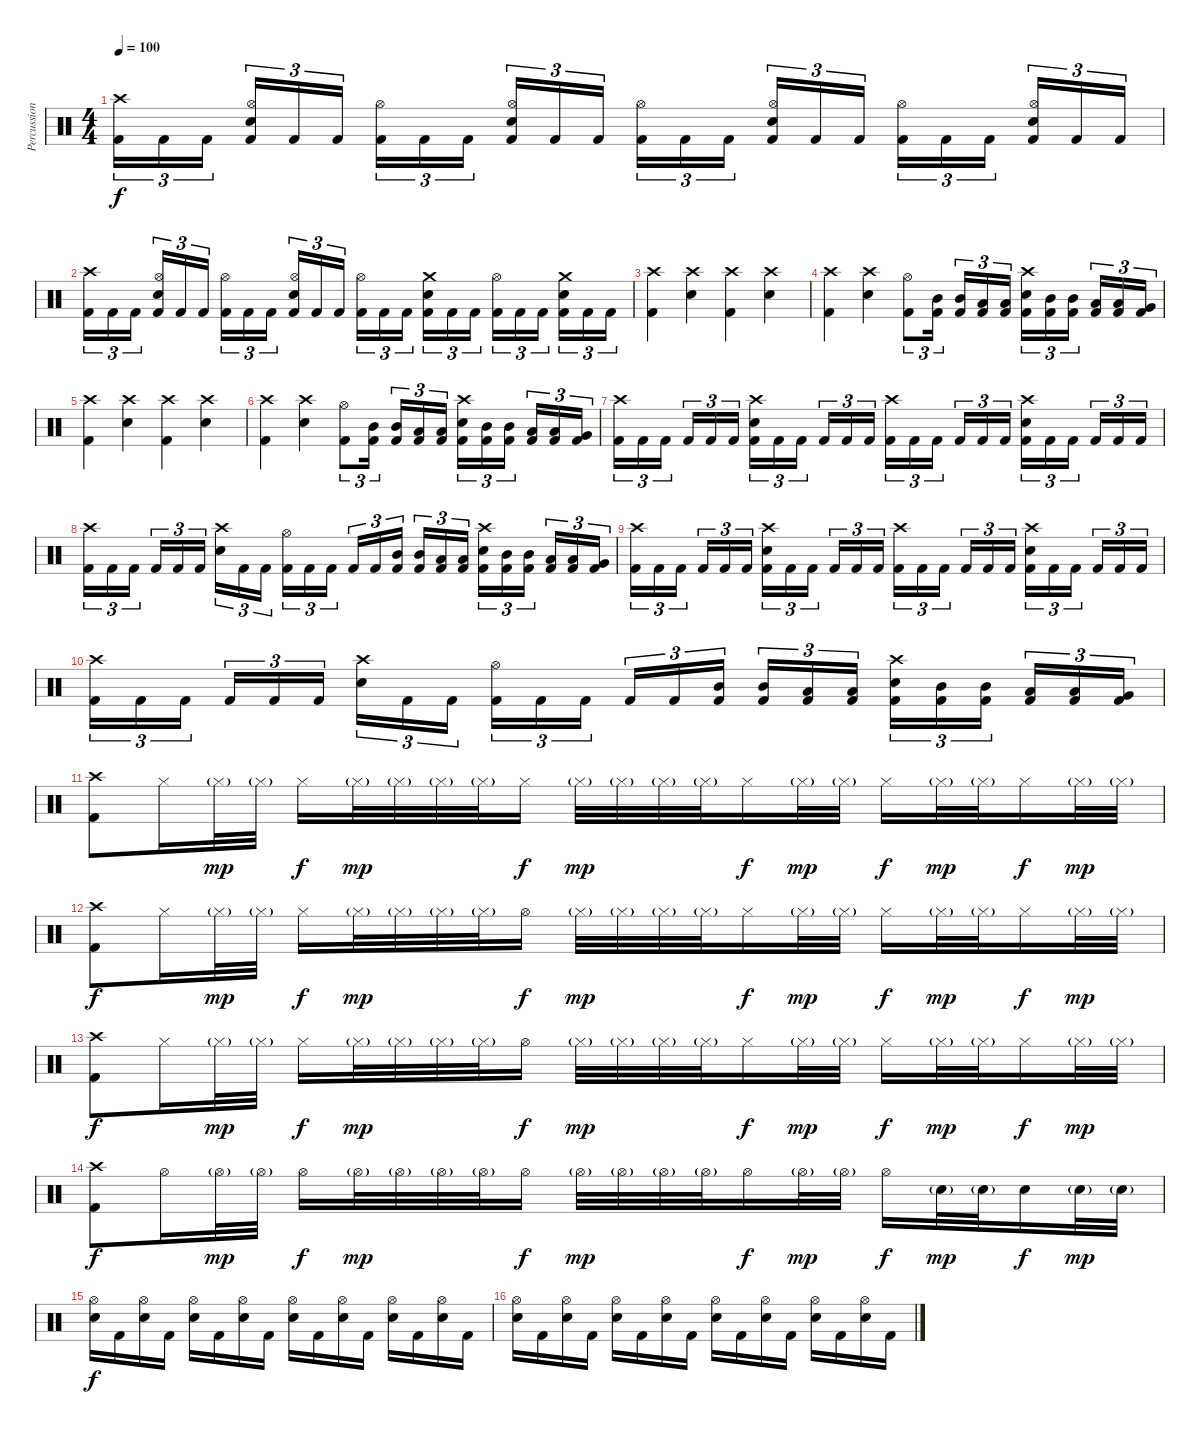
\track ("Percussion" "Percussion") {instrument percussion}
\staff {score}
\articulation defaults
\ts (4 4)
\tempo 100
\clef neutral
\ks c
("Crash high (hit)" "Kick (hit) 2").16{tu (3 2) dy f} "Kick (hit) 2".16{tu (3 2)} "Kick (hit) 2".16{tu (3 2)} ("Hi-Hat (open)" "Electric Snare (hit)" "Kick (hit) 2").16{tu (3 2)} "Kick (hit) 2".16{tu (3 2)} "Kick (hit) 2".16{tu (3 2)} ("Hi-Hat (open)" "Kick (hit) 2").16{tu (3 2)} "Kick (hit) 2".16{tu (3 2)} "Kick (hit) 2".16{tu (3 2)} ("Hi-Hat (open)" "Electric Snare (hit)" "Kick (hit) 2").16{tu (3 2)} "Kick (hit) 2".16{tu (3 2)} "Kick (hit) 2".16{tu (3 2)} ("Hi-Hat (open)" "Kick (hit) 2").16{tu (3 2)} "Kick (hit) 2".16{tu (3 2)} "Kick (hit) 2".16{tu (3 2)} ("Hi-Hat (open)" "Electric Snare (hit)" "Kick (hit) 2").16{tu (3 2)} "Kick (hit) 2".16{tu (3 2)} "Kick (hit) 2".16{tu (3 2)} ("Hi-Hat (open)" "Kick (hit) 2").16{tu (3 2)} "Kick (hit) 2".16{tu (3 2)} "Kick (hit) 2".16{tu (3 2)} ("Hi-Hat (open)" "Electric Snare (hit)" "Kick (hit) 2").16{tu (3 2)} "Kick (hit) 2".16{tu (3 2)} "Kick (hit) 2".16{tu (3 2)} |
("Crash high (hit)" "Kick (hit) 2").16{tu (3 2)} "Kick (hit) 2".16{tu (3 2)} "Kick (hit) 2".16{tu (3 2)} ("Hi-Hat (open)" "Electric Snare (hit)" "Kick (hit) 2").16{tu (3 2)} "Kick (hit) 2".16{tu (3 2)} "Kick (hit) 2".16{tu (3 2)} ("Hi-Hat (open)" "Kick (hit) 2").16{tu (3 2)} "Kick (hit) 2".16{tu (3 2)} "Kick (hit) 2".16{tu (3 2)} ("Hi-Hat (open)" "Electric Snare (hit)" "Kick (hit) 2").16{tu (3 2)} "Kick (hit) 2".16{tu (3 2)} "Kick (hit) 2".16{tu (3 2)} ("Hi-Hat (open)" "Kick (hit) 2").16{tu (3 2)} "Kick (hit) 2".16{tu (3 2)} "Kick (hit) 2".16{tu (3 2)} ("Crash medium (hit)" "Electric Snare (hit)" "Kick (hit) 2").16{tu (3 2)} "Kick (hit) 2".16{tu (3 2)} "Kick (hit) 2".16{tu (3 2)} ("Hi-Hat (open)" "Kick (hit) 2").16{tu (3 2)} "Kick (hit) 2".16{tu (3 2)} "Kick (hit) 2".16{tu (3 2)} ("Crash medium (hit)" "Electric Snare (hit)" "Kick (hit) 2").16{tu (3 2)} "Kick (hit) 2".16{tu (3 2)} "Kick (hit) 2".16{tu (3 2)} |
("Crash high (hit)" "Kick (hit) 2").4 ("Crash high (hit)" "Electric Snare (hit)").4 ("Crash high (hit)" "Kick (hit) 2").4 ("Crash high (hit)" "Electric Snare (hit)").4 |
("Crash high (hit)" "Kick (hit) 2").4 ("Crash high (hit)" "Electric Snare (hit)").4 ("Hi-Hat (open)" "Kick (hit) 2").8{tu (3 2)} ("Mid Tom (hit)" "Kick (hit) 2").16{tu (3 2)} ("Mid Tom (hit)" "Kick (hit) 2").16{tu (3 2)} ("Low Tom (hit)" "Kick (hit) 2").16{tu (3 2)} ("Low Tom (hit)" "Kick (hit) 2").16{tu (3 2)} ("Crash high (hit)" "Electric Snare (hit)" "Kick (hit) 2").16{tu (3 2)} ("Mid Tom (hit)" "Kick (hit) 2").16{tu (3 2)} ("Mid Tom (hit)" "Kick (hit) 2").16{tu (3 2)} ("Low Tom (hit)" "Kick (hit) 2").16{tu (3 2)} ("Low Tom (hit)" "Kick (hit) 2").16{tu (3 2)} ("Very Low Tom (hit)" "Kick (hit) 2").16{tu (3 2)} |
("Crash high (hit)" "Kick (hit) 2").4 ("Crash high (hit)" "Electric Snare (hit)").4 ("Crash high (hit)" "Kick (hit) 2").4 ("Crash high (hit)" "Electric Snare (hit)").4 |
("Crash high (hit)" "Kick (hit) 2").4 ("Crash high (hit)" "Electric Snare (hit)").4 ("Hi-Hat (open)" "Kick (hit) 2").8{tu (3 2)} ("Mid Tom (hit)" "Kick (hit) 2").16{tu (3 2)} ("Mid Tom (hit)" "Kick (hit) 2").16{tu (3 2)} ("Low Tom (hit)" "Kick (hit) 2").16{tu (3 2)} ("Low Tom (hit)" "Kick (hit) 2").16{tu (3 2)} ("Crash high (hit)" "Electric Snare (hit)" "Kick (hit) 2").16{tu (3 2)} ("Mid Tom (hit)" "Kick (hit) 2").16{tu (3 2)} ("Mid Tom (hit)" "Kick (hit) 2").16{tu (3 2)} ("Low Tom (hit)" "Kick (hit) 2").16{tu (3 2)} ("Low Tom (hit)" "Kick (hit) 2").16{tu (3 2)} ("Very Low Tom (hit)" "Kick (hit) 2").16{tu (3 2)} |
("Crash high (hit)" "Kick (hit) 2").16{tu (3 2)} "Kick (hit) 2".16{tu (3 2)} "Kick (hit) 2".16{tu (3 2)} "Kick (hit) 2".16{tu (3 2)} "Kick (hit) 2".16{tu (3 2)} "Kick (hit) 2".16{tu (3 2)} ("Crash high (hit)" "Electric Snare (hit)" "Kick (hit) 2").16{tu (3 2)} "Kick (hit) 2".16{tu (3 2)} "Kick (hit) 2".16{tu (3 2)} "Kick (hit) 2".16{tu (3 2)} "Kick (hit) 2".16{tu (3 2)} "Kick (hit) 2".16{tu (3 2)} ("Crash high (hit)" "Kick (hit) 2").16{tu (3 2)} "Kick (hit) 2".16{tu (3 2)} "Kick (hit) 2".16{tu (3 2)} "Kick (hit) 2".16{tu (3 2)} "Kick (hit) 2".16{tu (3 2)} "Kick (hit) 2".16{tu (3 2)} ("Crash high (hit)" "Electric Snare (hit)" "Kick (hit) 2").16{tu (3 2)} "Kick (hit) 2".16{tu (3 2)} "Kick (hit) 2".16{tu (3 2)} "Kick (hit) 2".16{tu (3 2)} "Kick (hit) 2".16{tu (3 2)} "Kick (hit) 2".16{tu (3 2)} |
("Crash high (hit)" "Kick (hit) 2").16{tu (3 2)} "Kick (hit) 2".16{tu (3 2)} "Kick (hit) 2".16{tu (3 2)} "Kick (hit) 2".16{tu (3 2)} "Kick (hit) 2".16{tu (3 2)} "Kick (hit) 2".16{tu (3 2)} ("Crash high (hit)" "Electric Snare (hit)").16{tu (3 2)} "Kick (hit) 2".16{tu (3 2)} "Kick (hit) 2".16{tu (3 2)} ("Hi-Hat (open)" "Kick (hit) 2").16{tu (3 2)} "Kick (hit) 2".16{tu (3 2)} "Kick (hit) 2".16{tu (3 2)} "Kick (hit) 2".16{tu (3 2)} "Kick (hit) 2".16{tu (3 2)} ("Mid Tom (hit)" "Kick (hit) 2").16{tu (3 2)} ("Mid Tom (hit)" "Kick (hit) 2").16{tu (3 2)} ("Low Tom (hit)" "Kick (hit) 2").16{tu (3 2)} ("Low Tom (hit)" "Kick (hit) 2").16{tu (3 2)} ("Crash high (hit)" "Electric Snare (hit)" "Kick (hit) 2").16{tu (3 2)} ("Mid Tom (hit)" "Kick (hit) 2").16{tu (3 2)} ("Mid Tom (hit)" "Kick (hit) 2").16{tu (3 2)} ("Low Tom (hit)" "Kick (hit) 2").16{tu (3 2)} ("Low Tom (hit)" "Kick (hit) 2").16{tu (3 2)} ("Very Low Tom (hit)" "Kick (hit) 2").16{tu (3 2)} |
("Crash high (hit)" "Kick (hit) 2").16{tu (3 2)} "Kick (hit) 2".16{tu (3 2)} "Kick (hit) 2".16{tu (3 2)} "Kick (hit) 2".16{tu (3 2)} "Kick (hit) 2".16{tu (3 2)} "Kick (hit) 2".16{tu (3 2)} ("Crash high (hit)" "Electric Snare (hit)" "Kick (hit) 2").16{tu (3 2)} "Kick (hit) 2".16{tu (3 2)} "Kick (hit) 2".16{tu (3 2)} "Kick (hit) 2".16{tu (3 2)} "Kick (hit) 2".16{tu (3 2)} "Kick (hit) 2".16{tu (3 2)} ("Crash high (hit)" "Kick (hit) 2").16{tu (3 2)} "Kick (hit) 2".16{tu (3 2)} "Kick (hit) 2".16{tu (3 2)} "Kick (hit) 2".16{tu (3 2)} "Kick (hit) 2".16{tu (3 2)} "Kick (hit) 2".16{tu (3 2)} ("Crash high (hit)" "Electric Snare (hit)" "Kick (hit) 2").16{tu (3 2)} "Kick (hit) 2".16{tu (3 2)} "Kick (hit) 2".16{tu (3 2)} "Kick (hit) 2".16{tu (3 2)} "Kick (hit) 2".16{tu (3 2)} "Kick (hit) 2".16{tu (3 2)} |
("Crash high (hit)" "Kick (hit) 2").16{tu (3 2)} "Kick (hit) 2".16{tu (3 2)} "Kick (hit) 2".16{tu (3 2)} "Kick (hit) 2".16{tu (3 2)} "Kick (hit) 2".16{tu (3 2)} "Kick (hit) 2".16{tu (3 2)} ("Crash high (hit)" "Electric Snare (hit)").16{tu (3 2)} "Kick (hit) 2".16{tu (3 2)} "Kick (hit) 2".16{tu (3 2)} ("Hi-Hat (open)" "Kick (hit) 2").16{tu (3 2)} "Kick (hit) 2".16{tu (3 2)} "Kick (hit) 2".16{tu (3 2)} "Kick (hit) 2".16{tu (3 2)} "Kick (hit) 2".16{tu (3 2)} ("Mid Tom (hit)" "Kick (hit) 2").16{tu (3 2)} ("Mid Tom (hit)" "Kick (hit) 2").16{tu (3 2)} ("Low Tom (hit)" "Kick (hit) 2").16{tu (3 2)} ("Low Tom (hit)" "Kick (hit) 2").16{tu (3 2)} ("Crash high (hit)" "Electric Snare (hit)" "Kick (hit) 2").16{tu (3 2)} ("Mid Tom (hit)" "Kick (hit) 2").16{tu (3 2)} ("Mid Tom (hit)" "Kick (hit) 2").16{tu (3 2)} ("Low Tom (hit)" "Kick (hit) 2").16{tu (3 2)} ("Low Tom (hit)" "Kick (hit) 2").16{tu (3 2)} ("Very Low Tom (hit)" "Kick (hit) 2").16{tu (3 2)} |
("Crash high (hit)" "Kick (hit) 2").8 "Hi-Hat (closed)".16 "Hi-Hat (closed)"{g}.32{dy mp} "Hi-Hat (closed)"{g}.32 "Hi-Hat (closed)".16{dy f} "Hi-Hat (closed)"{g}.32{dy mp} "Hi-Hat (closed)"{g}.32 "Hi-Hat (closed)"{g}.32 "Hi-Hat (closed)"{g}.32 "Hi-Hat (closed)".16{dy f} "Hi-Hat (closed)"{g}.32{dy mp} "Hi-Hat (closed)"{g}.32 "Hi-Hat (closed)"{g}.32 "Hi-Hat (closed)"{g}.32 "Hi-Hat (closed)".16{dy f} "Hi-Hat (closed)"{g}.32{dy mp} "Hi-Hat (closed)"{g}.32 "Hi-Hat (closed)".16{dy f} "Hi-Hat (closed)"{g}.32{dy mp} "Hi-Hat (closed)"{g}.32 "Hi-Hat (closed)".16{dy f} "Hi-Hat (closed)"{g}.32{dy mp} "Hi-Hat (closed)"{g}.32 |
("Crash high (hit)" "Kick (hit) 2").8{dy f} "Hi-Hat (closed)".16 "Hi-Hat (closed)"{g}.32{dy mp} "Hi-Hat (closed)"{g}.32 "Hi-Hat (closed)".16{dy f} "Hi-Hat (closed)"{g}.32{dy mp} "Hi-Hat (closed)"{g}.32 "Hi-Hat (closed)"{g}.32 "Hi-Hat (closed)"{g}.32 "Hi-Hat (open)".16{dy f} "Hi-Hat (closed)"{g}.32{dy mp} "Hi-Hat (closed)"{g}.32 "Hi-Hat (closed)"{g}.32 "Hi-Hat (closed)"{g}.32 "Hi-Hat (closed)".16{dy f} "Hi-Hat (closed)"{g}.32{dy mp} "Hi-Hat (closed)"{g}.32 "Hi-Hat (closed)".16{dy f} "Hi-Hat (closed)"{g}.32{dy mp} "Hi-Hat (closed)"{g}.32 "Hi-Hat (closed)".16{dy f} "Hi-Hat (closed)"{g}.32{dy mp} "Hi-Hat (closed)"{g}.32 |
("Crash high (hit)" "Kick (hit) 2").8{dy f} "Hi-Hat (closed)".16 "Hi-Hat (closed)"{g}.32{dy mp} "Hi-Hat (closed)"{g}.32 "Hi-Hat (closed)".16{dy f} "Hi-Hat (closed)"{g}.32{dy mp} "Hi-Hat (closed)"{g}.32 "Hi-Hat (closed)"{g}.32 "Hi-Hat (closed)"{g}.32 "Hi-Hat (open)".16{dy f} "Hi-Hat (closed)"{g}.32{dy mp} "Hi-Hat (closed)"{g}.32 "Hi-Hat (closed)"{g}.32 "Hi-Hat (closed)"{g}.32 "Hi-Hat (closed)".16{dy f} "Hi-Hat (closed)"{g}.32{dy mp} "Hi-Hat (closed)"{g}.32 "Hi-Hat (closed)".16{dy f} "Hi-Hat (closed)"{g}.32{dy mp} "Hi-Hat (closed)"{g}.32 "Hi-Hat (closed)".16{dy f} "Hi-Hat (closed)"{g}.32{dy mp} "Hi-Hat (closed)"{g}.32 |
("Crash high (hit)" "Kick (hit) 2").8{dy f} "Hi-Hat (open)".16 "Hi-Hat (open)"{g}.32{dy mp} "Hi-Hat (open)"{g}.32 "Hi-Hat (open)".16{dy f} "Hi-Hat (open)"{g}.32{dy mp} "Hi-Hat (open)"{g}.32 "Hi-Hat (open)"{g}.32 "Hi-Hat (open)"{g}.32 "Hi-Hat (open)".16{dy f} "Hi-Hat (open)"{g}.32{dy mp} "Hi-Hat (open)"{g}.32 "Hi-Hat (open)"{g}.32 "Hi-Hat (open)"{g}.32 "Hi-Hat (open)".16{dy f} "Hi-Hat (open)"{g}.32{dy mp} "Hi-Hat (open)"{g}.32 "Hi-Hat (open)".16{dy f} "Electric Snare (hit)"{g}.32{dy mp} "Electric Snare (hit)"{g}.32 "Electric Snare (hit)".16{dy f} "Electric Snare (hit)"{g}.32{dy mp} "Electric Snare (hit)"{g}.32 |
("Hi-Hat (open)" "Electric Snare (hit)").16{dy f} "Kick (hit) 2".16 ("Hi-Hat (open)" "Electric Snare (hit)").16 "Kick (hit) 2".16 ("Hi-Hat (open)" "Electric Snare (hit)").16 "Kick (hit) 2".16 ("Hi-Hat (open)" "Electric Snare (hit)").16 "Kick (hit) 2".16 ("Hi-Hat (open)" "Electric Snare (hit)").16 "Kick (hit) 2".16 ("Hi-Hat (open)" "Electric Snare (hit)").16 "Kick (hit) 2".16 ("Hi-Hat (open)" "Electric Snare (hit)").16 "Kick (hit) 2".16 ("Hi-Hat (open)" "Electric Snare (hit)").16 "Kick (hit) 2".16 |
("Hi-Hat (open)" "Electric Snare (hit)").16 "Kick (hit) 2".16 ("Hi-Hat (open)" "Electric Snare (hit)").16 "Kick (hit) 2".16 ("Hi-Hat (open)" "Electric Snare (hit)").16 "Kick (hit) 2".16 ("Hi-Hat (open)" "Electric Snare (hit)").16 "Kick (hit) 2".16 ("Hi-Hat (open)" "Electric Snare (hit)").16 "Kick (hit) 2".16 ("Hi-Hat (open)" "Electric Snare (hit)").16 "Kick (hit) 2".16 ("Hi-Hat (open)" "Electric Snare (hit)").16 "Kick (hit) 2".16 ("Hi-Hat (open)" "Electric Snare (hit)").16 "Kick (hit) 2".16
